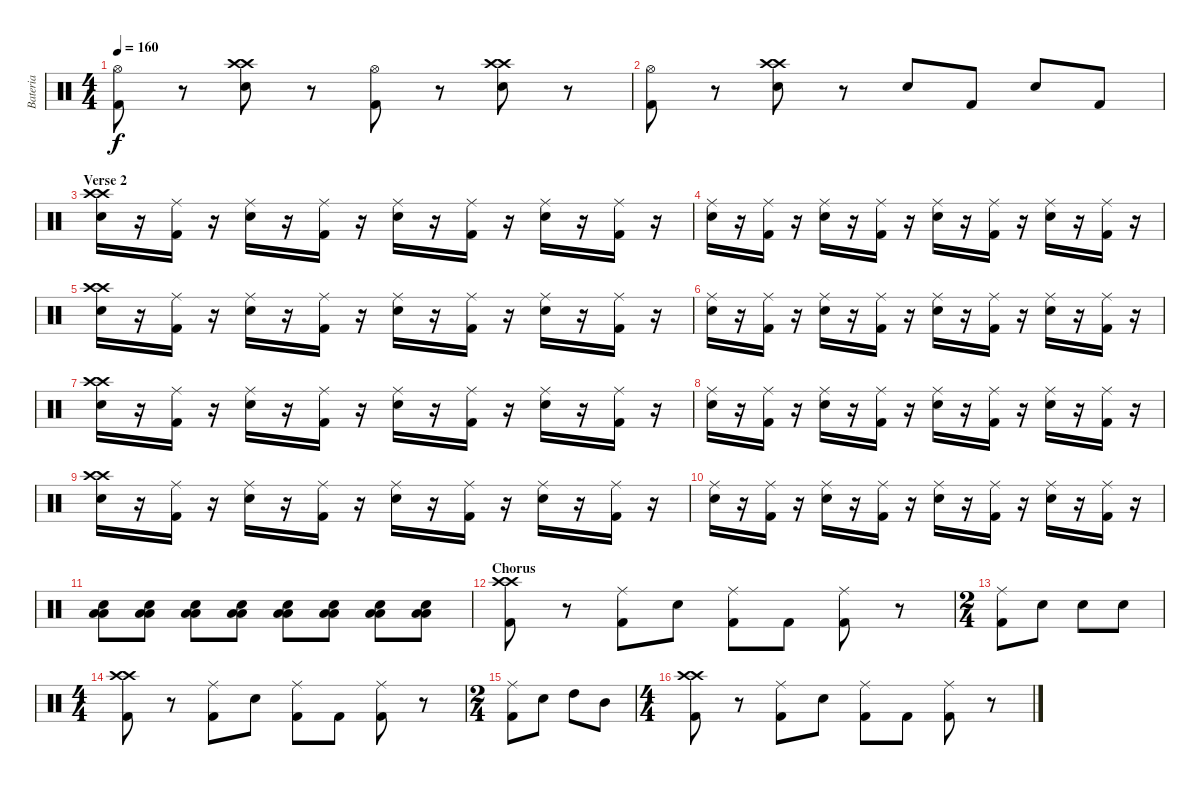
\track ("Bateria" "Bateria") {instrument percussion}
\staff {score}
\articulation defaults
\ts (4 4)
\tempo 160
\clef neutral
\ks c
("Hi-Hat (open)" "Kick (hit) 2").8{dy f} r.8 ("Crash high (hit)" "Crash high (hit)" "Snare (hit) 2").8 r.8 ("Hi-Hat (open)" "Kick (hit) 2").8 r.8 ("Crash high (hit)" "Crash high (hit)" "Snare (hit) 2").8 r.8 |
("Hi-Hat (open)" "Kick (hit) 2").8 r.8 ("Crash high (hit)" "Crash high (hit)" "Snare (hit) 2").8 r.8 "Snare (hit) 2".8 "Kick (hit) 2".8 "Snare (hit) 2".8 "Kick (hit) 2".8 |
\section ("" "Verse 2")
("Crash high (hit)" "Crash high (hit)" "Snare (hit) 2").16 r.16 ("Ride (middle)" "Kick (hit) 2").16 r.16 ("Ride (middle)" "Snare (hit) 2").16 r.16 ("Ride (middle)" "Kick (hit) 2").16 r.16 ("Ride (middle)" "Snare (hit) 2").16 r.16 ("Ride (middle)" "Kick (hit) 2").16 r.16 ("Ride (middle)" "Snare (hit) 2").16 r.16 ("Ride (middle)" "Kick (hit) 2").16 r.16 |
("Ride (middle)" "Snare (hit) 2").16 r.16 ("Ride (middle)" "Kick (hit) 2").16 r.16 ("Ride (middle)" "Snare (hit) 2").16 r.16 ("Ride (middle)" "Kick (hit) 2").16 r.16 ("Ride (middle)" "Snare (hit) 2").16 r.16 ("Ride (middle)" "Kick (hit) 2").16 r.16 ("Ride (middle)" "Snare (hit) 2").16 r.16 ("Ride (middle)" "Kick (hit) 2").16 r.16 |
("Crash high (hit)" "Crash high (hit)" "Snare (hit) 2").16 r.16 ("Ride (middle)" "Kick (hit) 2").16 r.16 ("Ride (middle)" "Snare (hit) 2").16 r.16 ("Ride (middle)" "Kick (hit) 2").16 r.16 ("Ride (middle)" "Snare (hit) 2").16 r.16 ("Ride (middle)" "Kick (hit) 2").16 r.16 ("Ride (middle)" "Snare (hit) 2").16 r.16 ("Ride (middle)" "Kick (hit) 2").16 r.16 |
("Ride (middle)" "Snare (hit) 2").16 r.16 ("Ride (middle)" "Kick (hit) 2").16 r.16 ("Ride (middle)" "Snare (hit) 2").16 r.16 ("Ride (middle)" "Kick (hit) 2").16 r.16 ("Ride (middle)" "Snare (hit) 2").16 r.16 ("Ride (middle)" "Kick (hit) 2").16 r.16 ("Ride (middle)" "Snare (hit) 2").16 r.16 ("Ride (middle)" "Kick (hit) 2").16 r.16 |
("Crash high (hit)" "Crash high (hit)" "Snare (hit) 2").16 r.16 ("Ride (middle)" "Kick (hit) 2").16 r.16 ("Ride (middle)" "Snare (hit) 2").16 r.16 ("Ride (middle)" "Kick (hit) 2").16 r.16 ("Ride (middle)" "Snare (hit) 2").16 r.16 ("Ride (middle)" "Kick (hit) 2").16 r.16 ("Ride (middle)" "Snare (hit) 2").16 r.16 ("Ride (middle)" "Kick (hit) 2").16 r.16 |
("Ride (middle)" "Snare (hit) 2").16 r.16 ("Ride (middle)" "Kick (hit) 2").16 r.16 ("Ride (middle)" "Snare (hit) 2").16 r.16 ("Ride (middle)" "Kick (hit) 2").16 r.16 ("Ride (middle)" "Snare (hit) 2").16 r.16 ("Ride (middle)" "Kick (hit) 2").16 r.16 ("Ride (middle)" "Snare (hit) 2").16 r.16 ("Ride (middle)" "Kick (hit) 2").16 r.16 |
("Crash high (hit)" "Crash high (hit)" "Snare (hit) 2").16 r.16 ("Ride (middle)" "Kick (hit) 2").16 r.16 ("Ride (middle)" "Snare (hit) 2").16 r.16 ("Ride (middle)" "Kick (hit) 2").16 r.16 ("Ride (middle)" "Snare (hit) 2").16 r.16 ("Ride (middle)" "Kick (hit) 2").16 r.16 ("Ride (middle)" "Snare (hit) 2").16 r.16 ("Ride (middle)" "Kick (hit) 2").16 r.16 |
("Ride (middle)" "Snare (hit) 2").16 r.16 ("Ride (middle)" "Kick (hit) 2").16 r.16 ("Ride (middle)" "Snare (hit) 2").16 r.16 ("Ride (middle)" "Kick (hit) 2").16 r.16 ("Ride (middle)" "Snare (hit) 2").16 r.16 ("Ride (middle)" "Kick (hit) 2").16 r.16 ("Ride (middle)" "Snare (hit) 2").16 r.16 ("Ride (middle)" "Kick (hit) 2").16 r.16 |
("Low Floor Tom (hit)" "Low Floor Tom (hit)" "Snare (hit) 2").8 ("Low Floor Tom (hit)" "Low Floor Tom (hit)" "Snare (hit) 2").8 ("Low Floor Tom (hit)" "Low Floor Tom (hit)" "Snare (hit) 2").8 ("Low Floor Tom (hit)" "Low Floor Tom (hit)" "Snare (hit) 2").8 ("Low Floor Tom (hit)" "Low Floor Tom (hit)" "Snare (hit) 2").8 ("Low Floor Tom (hit)" "Low Floor Tom (hit)" "Snare (hit) 2").8 ("Low Floor Tom (hit)" "Low Floor Tom (hit)" "Snare (hit) 2").8 ("Low Floor Tom (hit)" "Low Floor Tom (hit)" "Snare (hit) 2").8 |
\section ("" "Chorus")
("Crash high (hit)" "Crash high (hit)" "Kick (hit) 2").8 r.8 ("Ride (middle)" "Kick (hit) 2").8 "Snare (hit) 2".8 ("Ride (middle)" "Kick (hit) 2").8 "Kick (hit) 2".8 ("Ride (middle)" "Kick (hit) 2").8 r.8 |
\ts (2 4)
("Ride (middle)" "Kick (hit) 2").8 "Snare (hit) 2".8 "Snare (hit) 2".8 "Snare (hit) 2".8 |
\ts (4 4)
("Crash high (hit)" "Crash high (hit)" "Kick (hit) 2").8 r.8 ("Ride (middle)" "Kick (hit) 2").8 "Snare (hit) 2".8 ("Ride (middle)" "Kick (hit) 2").8 "Kick (hit) 2".8 ("Ride (middle)" "Kick (hit) 2").8 r.8 |
\ts (2 4)
("Ride (middle)" "Kick (hit) 2").8 "Snare (hit) 2".8 "High Tom (hit)".8 "Mid Tom (hit)".8 |
\ts (4 4)
("Crash high (hit)" "Crash high (hit)" "Kick (hit) 2").8 r.8 ("Ride (middle)" "Kick (hit) 2").8 "Snare (hit) 2".8 ("Ride (middle)" "Kick (hit) 2").8 "Kick (hit) 2".8 ("Ride (middle)" "Kick (hit) 2").8 r.8
